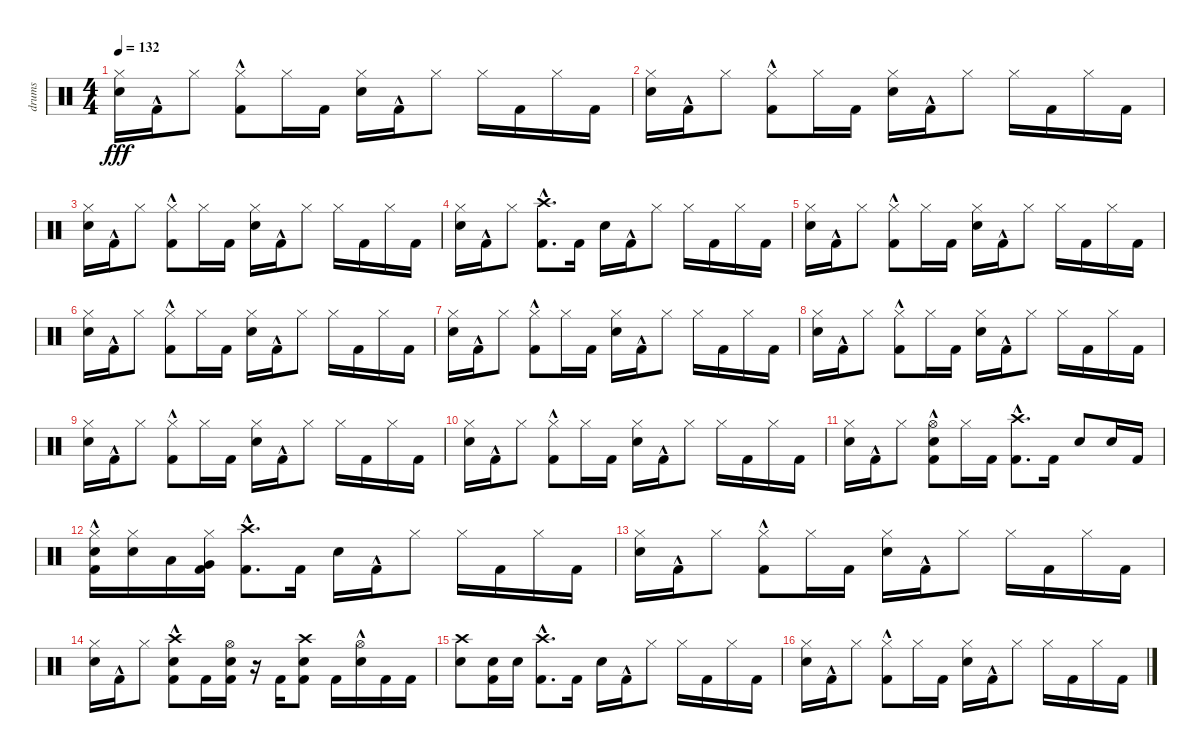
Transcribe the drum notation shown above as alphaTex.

\track ("drums" "drums") {instrument percussion}
\staff {score}
\articulation defaults
\ts (4 4)
\tempo 132
\clef neutral
\ks c
("Snare (hit) 2" "Hi-Hat (closed)").16{dy fff} "Kick (hit) 2"{hac}.16 "Hi-Hat (closed)".8 ("Kick (hit) 2"{hac} "Hi-Hat (closed)").8 "Hi-Hat (closed)".16 "Kick (hit) 2".16 ("Snare (hit) 2" "Hi-Hat (closed)").16 "Kick (hit) 2"{hac}.16 "Hi-Hat (closed)".8 "Hi-Hat (closed)".16 "Kick (hit) 2".16 "Hi-Hat (closed)".16 "Kick (hit) 2".16 |
("Snare (hit) 2" "Hi-Hat (closed)").16 "Kick (hit) 2"{hac}.16 "Hi-Hat (closed)".8 ("Kick (hit) 2"{hac} "Hi-Hat (closed)").8 "Hi-Hat (closed)".16 "Kick (hit) 2".16 ("Snare (hit) 2" "Hi-Hat (closed)").16 "Kick (hit) 2"{hac}.16 "Hi-Hat (closed)".8 "Hi-Hat (closed)".16 "Kick (hit) 2".16 "Hi-Hat (closed)".16 "Kick (hit) 2".16 |
("Snare (hit) 2" "Hi-Hat (closed)").16 "Kick (hit) 2"{hac}.16 "Hi-Hat (closed)".8 ("Kick (hit) 2"{hac} "Hi-Hat (closed)").8 "Hi-Hat (closed)".16 "Kick (hit) 2".16 ("Snare (hit) 2" "Hi-Hat (closed)").16 "Kick (hit) 2"{hac}.16 "Hi-Hat (closed)".8 "Hi-Hat (closed)".16 "Kick (hit) 2".16 "Hi-Hat (closed)".16 "Kick (hit) 2".16 |
("Snare (hit) 2" "Hi-Hat (closed)").16 "Kick (hit) 2"{hac}.16 "Hi-Hat (closed)".8 ("Kick (hit) 2"{hac} "Crash high (hit)").8{d} "Kick (hit) 2".16 "Snare (hit) 2".16 "Kick (hit) 2"{hac}.16 "Hi-Hat (closed)".8 "Hi-Hat (closed)".16 "Kick (hit) 2".16 "Hi-Hat (closed)".16 "Kick (hit) 2".16 |
("Snare (hit) 2" "Hi-Hat (closed)").16 "Kick (hit) 2"{hac}.16 "Hi-Hat (closed)".8 ("Kick (hit) 2"{hac} "Hi-Hat (closed)").8 "Hi-Hat (closed)".16 "Kick (hit) 2".16 ("Snare (hit) 2" "Hi-Hat (closed)").16 "Kick (hit) 2"{hac}.16 "Hi-Hat (closed)".8 "Hi-Hat (closed)".16 "Kick (hit) 2".16 "Hi-Hat (closed)".16 "Kick (hit) 2".16 |
("Snare (hit) 2" "Hi-Hat (closed)").16 "Kick (hit) 2"{hac}.16 "Hi-Hat (closed)".8 ("Kick (hit) 2"{hac} "Hi-Hat (closed)").8 "Hi-Hat (closed)".16 "Kick (hit) 2".16 ("Snare (hit) 2" "Hi-Hat (closed)").16 "Kick (hit) 2"{hac}.16 "Hi-Hat (closed)".8 "Hi-Hat (closed)".16 "Kick (hit) 2".16 "Hi-Hat (closed)".16 "Kick (hit) 2".16 |
("Snare (hit) 2" "Hi-Hat (closed)").16 "Kick (hit) 2"{hac}.16 "Hi-Hat (closed)".8 ("Kick (hit) 2"{hac} "Hi-Hat (closed)").8 "Hi-Hat (closed)".16 "Kick (hit) 2".16 ("Snare (hit) 2" "Hi-Hat (closed)").16 "Kick (hit) 2"{hac}.16 "Hi-Hat (closed)".8 "Hi-Hat (closed)".16 "Kick (hit) 2".16 "Hi-Hat (closed)".16 "Kick (hit) 2".16 |
("Snare (hit) 2" "Hi-Hat (closed)").16 "Kick (hit) 2"{hac}.16 "Hi-Hat (closed)".8 ("Kick (hit) 2"{hac} "Hi-Hat (closed)").8 "Hi-Hat (closed)".16 "Kick (hit) 2".16 ("Snare (hit) 2" "Hi-Hat (closed)").16 "Kick (hit) 2"{hac}.16 "Hi-Hat (closed)".8 "Hi-Hat (closed)".16 "Kick (hit) 2".16 "Hi-Hat (closed)".16 "Kick (hit) 2".16 |
("Snare (hit) 2" "Hi-Hat (closed)").16 "Kick (hit) 2"{hac}.16 "Hi-Hat (closed)".8 ("Kick (hit) 2"{hac} "Hi-Hat (closed)").8 "Hi-Hat (closed)".16 "Kick (hit) 2".16 ("Snare (hit) 2" "Hi-Hat (closed)").16 "Kick (hit) 2"{hac}.16 "Hi-Hat (closed)".8 "Hi-Hat (closed)".16 "Kick (hit) 2".16 "Hi-Hat (closed)".16 "Kick (hit) 2".16 |
("Snare (hit) 2" "Hi-Hat (closed)").16 "Kick (hit) 2"{hac}.16 "Hi-Hat (closed)".8 ("Kick (hit) 2"{hac} "Hi-Hat (closed)").8 "Hi-Hat (closed)".16 "Kick (hit) 2".16 ("Snare (hit) 2" "Hi-Hat (closed)").16 "Kick (hit) 2"{hac}.16 "Hi-Hat (closed)".8 "Hi-Hat (closed)".16 "Kick (hit) 2".16 "Hi-Hat (closed)".16 "Kick (hit) 2".16 |
("Snare (hit) 2" "Hi-Hat (closed)").16 "Kick (hit) 2"{hac}.16 "Hi-Hat (closed)".8 ("Kick (hit) 2"{hac} "Snare (hit) 2" "Hi-Hat (open)").8 "Hi-Hat (closed)".16 "Kick (hit) 2".16 ("Kick (hit) 2"{hac} "Crash high (hit)").8{d} "Kick (hit) 2".16 "Snare (hit) 2".8 "Snare (hit) 2".16 "Kick (hit) 2".16 |
("Kick (hit) 2"{hac} "Snare (hit) 2" "Hi-Hat (closed)").16 ("Snare (hit) 2" "Hi-Hat (closed)").16 "Low Tom (hit)".16 ("Kick (hit) 2" "Very Low Tom (hit)" "Hi-Hat (closed)").16 ("Kick (hit) 2"{hac} "Crash high (hit)").8{d} "Kick (hit) 2".16 "Snare (hit) 2".16 "Kick (hit) 2"{hac}.16 "Hi-Hat (closed)".8 "Hi-Hat (closed)".16 "Kick (hit) 2".16 "Hi-Hat (closed)".16 "Kick (hit) 2".16 |
("Snare (hit) 2" "Hi-Hat (closed)").16 "Kick (hit) 2"{hac}.16 "Hi-Hat (closed)".8 ("Kick (hit) 2"{hac} "Hi-Hat (closed)").8 "Hi-Hat (closed)".16 "Kick (hit) 2".16 ("Snare (hit) 2" "Hi-Hat (closed)").16 "Kick (hit) 2"{hac}.16 "Hi-Hat (closed)".8 "Hi-Hat (closed)".16 "Kick (hit) 2".16 "Hi-Hat (closed)".16 "Kick (hit) 2".16 |
("Snare (hit) 2" "Hi-Hat (closed)").16 "Kick (hit) 2"{hac}.16 "Hi-Hat (closed)".8 ("Kick (hit) 2" "Snare (hit) 2"{hac} "Crash high (hit)"{hac}).8 "Kick (hit) 2".16 ("Kick (hit) 2" "Snare (hit) 2" "Hi-Hat (open)").16 r.16 "Kick (hit) 2".16 ("Kick (hit) 2" "Snare (hit) 2" "Crash high (hit)").8 "Kick (hit) 2".16 ("Snare (hit) 2"{hac} "Hi-Hat (open)"{hac}).16 "Kick (hit) 2".16 "Kick (hit) 2".16 |
("Snare (hit) 2" "Crash high (hit)").8 ("Kick (hit) 2" "Snare (hit) 2").16 "Snare (hit) 2".16 ("Kick (hit) 2"{hac} "Crash high (hit)").8{d} "Kick (hit) 2".16 "Snare (hit) 2".16 "Kick (hit) 2"{hac}.16 "Hi-Hat (closed)".8 "Hi-Hat (closed)".16 "Kick (hit) 2".16 "Hi-Hat (closed)".16 "Kick (hit) 2".16 |
("Snare (hit) 2" "Hi-Hat (closed)").16 "Kick (hit) 2"{hac}.16 "Hi-Hat (closed)".8 ("Kick (hit) 2"{hac} "Hi-Hat (closed)").8 "Hi-Hat (closed)".16 "Kick (hit) 2".16 ("Snare (hit) 2" "Hi-Hat (closed)").16 "Kick (hit) 2"{hac}.16 "Hi-Hat (closed)".8 "Hi-Hat (closed)".16 "Kick (hit) 2".16 "Hi-Hat (closed)".16 "Kick (hit) 2".16
